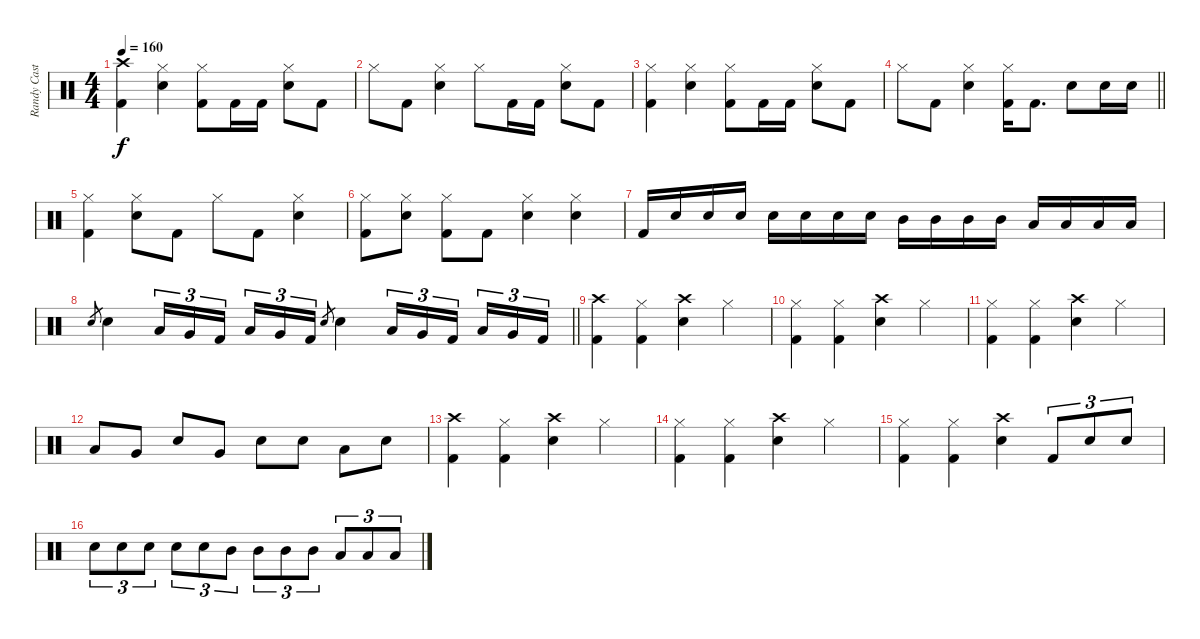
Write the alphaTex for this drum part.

\track ("Randy Castillo" "Randy Cast") {instrument percussion}
\staff {score}
\articulation defaults
\ts (4 4)
\tempo 160
\clef neutral
\ks aminor
("Kick (hit) 2" "Crash high (hit)").4{dy f} ("Hi-Hat (closed)" "Snare (hit) 2").4 ("Hi-Hat (closed)" "Kick (hit) 2").8 "Kick (hit) 2".16 "Kick (hit) 2".16 ("Hi-Hat (closed)" "Snare (hit) 2").8 "Kick (hit) 2".8 |
"Hi-Hat (closed)".8 "Kick (hit) 2".8 ("Hi-Hat (closed)" "Snare (hit) 2").4 "Hi-Hat (closed)".8 "Kick (hit) 2".16 "Kick (hit) 2".16 ("Hi-Hat (closed)" "Snare (hit) 2").8 "Kick (hit) 2".8 |
("Hi-Hat (closed)" "Kick (hit) 2").4 ("Hi-Hat (closed)" "Snare (hit) 2").4 ("Hi-Hat (closed)" "Kick (hit) 2").8 "Kick (hit) 2".16 "Kick (hit) 2".16 ("Hi-Hat (closed)" "Snare (hit) 2").8 "Kick (hit) 2".8 |
\barLineRight lightlight "Hi-Hat (closed)".8 "Kick (hit) 2".8
("Hi-Hat (closed)" "Snare (hit) 2").4 ("Hi-Hat (closed)" "Kick (hit) 2").16 "Kick (hit) 2".8{d} "Snare (hit) 2".8 "Snare (hit) 2".16 "Snare (hit) 2".16 |
("Hi-Hat (closed)" "Kick (hit) 2").4 ("Hi-Hat (closed)" "Snare (hit) 2").8 "Kick (hit) 2".8 "Hi-Hat (closed)".8 "Kick (hit) 2".8 ("Hi-Hat (closed)" "Snare (hit) 2").4 |
("Hi-Hat (closed)" "Kick (hit) 2").8 ("Hi-Hat (closed)" "Snare (hit) 2").8 ("Hi-Hat (closed)" "Kick (hit) 2").8 "Kick (hit) 2".8 ("Hi-Hat (closed)" "Snare (hit) 2").4 ("Hi-Hat (closed)" "Snare (hit) 2").4 |
"Kick (hit) 2".16 "Snare (hit) 2".16 "Snare (hit) 2".16 "Snare (hit) 2".16 "Snare (hit) 2".16 "Snare (hit) 2".16 "Snare (hit) 2".16 "Snare (hit) 2".16 "Mid Tom (hit)".16 "Mid Tom (hit)".16 "Mid Tom (hit)".16 "Mid Tom (hit)".16 "Low Tom (hit)".16 "Low Tom (hit)".16 "Low Tom (hit)".16 "Low Tom (hit)".16 |
\barLineRight lightlight "Snare (hit) 2".8{gr} "Snare (hit) 2".4 "Low Tom (hit)".16{tu (3 2)} "Very Low Tom (hit)".16{tu (3 2)} "Kick (hit) 2".16{tu (3 2) beam splitsecondary} "Low Tom (hit)".16{tu (3 2)} "Very Low Tom (hit)".16{tu (3 2)} "Kick (hit) 2".16{tu (3 2)} "Snare (hit) 2".8{gr} "Snare (hit) 2".4 "Low Tom (hit)".16{tu (3 2)} "Very Low Tom (hit)".16{tu (3 2)} "Kick (hit) 2".16{tu (3 2) beam splitsecondary} "Low Tom (hit)".16{tu (3 2)} "Very Low Tom (hit)".16{tu (3 2)} "Kick (hit) 2".16{tu (3 2)}
|
("Kick (hit) 2" "Crash high (hit)").4 ("Hi-Hat (closed)" "Kick (hit) 2").4 ("Snare (hit) 2" "Crash high (hit)").4 "Hi-Hat (closed)".4 |
("Hi-Hat (closed)" "Kick (hit) 2").4 ("Hi-Hat (closed)" "Kick (hit) 2").4 ("Snare (hit) 2" "Crash high (hit)").4 "Hi-Hat (closed)".4 |
("Hi-Hat (closed)" "Kick (hit) 2").4 ("Hi-Hat (closed)" "Kick (hit) 2").4 ("Snare (hit) 2" "Crash high (hit)").4 "Hi-Hat (closed)".4 |
"Low Tom (hit)".8 "Very Low Tom (hit)".8 "Snare (hit) 2".8 "Very Low Tom (hit)".8 "Snare (hit) 2".8 "Snare (hit) 2".8 "Low Tom (hit)".8 "Snare (hit) 2".8 |
("Kick (hit) 2" "Crash high (hit)").4 ("Hi-Hat (closed)" "Kick (hit) 2").4 ("Snare (hit) 2" "Crash high (hit)").4 "Hi-Hat (closed)".4 |
("Hi-Hat (closed)" "Kick (hit) 2").4 ("Hi-Hat (closed)" "Kick (hit) 2").4 ("Snare (hit) 2" "Crash high (hit)").4 "Hi-Hat (closed)".4 |
("Hi-Hat (closed)" "Kick (hit) 2").4 ("Hi-Hat (closed)" "Kick (hit) 2").4 ("Snare (hit) 2" "Crash high (hit)").4 "Kick (hit) 2".8{tu (3 2)} "Snare (hit) 2".8{tu (3 2)} "Snare (hit) 2".8{tu (3 2)} |
"Snare (hit) 2".8{tu (3 2)} "Snare (hit) 2".8{tu (3 2)} "Snare (hit) 2".8{tu (3 2)} "Snare (hit) 2".8{tu (3 2)} "Snare (hit) 2".8{tu (3 2)} "Mid Tom (hit)".8{tu (3 2)} "Mid Tom (hit)".8{tu (3 2)} "Mid Tom (hit)".8{tu (3 2)} "Mid Tom (hit)".8{tu (3 2)} "Low Tom (hit)".8{tu (3 2)} "Low Tom (hit)".8{tu (3 2)} "Low Tom (hit)".8{tu (3 2)}
